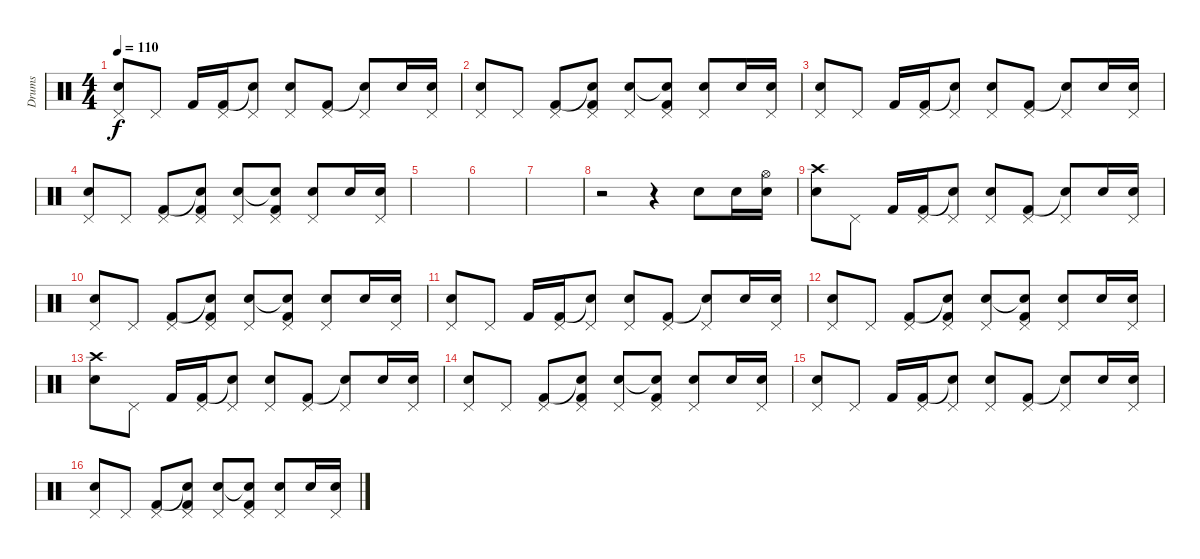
\track ("Drums" "Drums") {instrument percussion}
\staff {score}
\articulation defaults
\ts (4 4)
\tempo 110
\clef neutral
\ks c
("Pedal Hi-Hat (hit)" "Snare (hit) 2").8{dy f} "Pedal Hi-Hat (hit)".8 "Kick (hit) 2".16 ("Pedal Hi-Hat (hit)" "Kick (hit) 2").16 ("Pedal Hi-Hat (hit)" "Snare (hit)"{t}).8 ("Pedal Hi-Hat (hit)" "Snare (hit) 2").8 ("Pedal Hi-Hat (hit)" "Kick (hit) 2").8 ("Pedal Hi-Hat (hit)" "Snare (hit)"{t}).8 "Snare (hit) 2".16 ("Pedal Hi-Hat (hit)" "Snare (hit) 2").16 |
("Pedal Hi-Hat (hit)" "Snare (hit) 2").8 "Pedal Hi-Hat (hit)".8 ("Pedal Hi-Hat (hit)" "Kick (hit) 2").8 ("Pedal Hi-Hat (hit)" "Snare (hit)"{t} "Kick (hit) 2").8 ("Pedal Hi-Hat (hit)" "Snare (hit) 2").8 ("Pedal Hi-Hat (hit)" "Snare (hit)"{t} "Kick (hit) 2").8 ("Pedal Hi-Hat (hit)" "Snare (hit) 2").8 "Snare (hit) 2".16 ("Pedal Hi-Hat (hit)" "Snare (hit) 2").16 |
("Pedal Hi-Hat (hit)" "Snare (hit) 2").8 "Pedal Hi-Hat (hit)".8 "Kick (hit) 2".16 ("Pedal Hi-Hat (hit)" "Kick (hit) 2").16 ("Pedal Hi-Hat (hit)" "Snare (hit)"{t}).8 ("Pedal Hi-Hat (hit)" "Snare (hit) 2").8 ("Pedal Hi-Hat (hit)" "Kick (hit) 2").8 ("Pedal Hi-Hat (hit)" "Snare (hit)"{t}).8 "Snare (hit) 2".16 ("Pedal Hi-Hat (hit)" "Snare (hit) 2").16 |
("Pedal Hi-Hat (hit)" "Snare (hit) 2").8 "Pedal Hi-Hat (hit)".8 ("Pedal Hi-Hat (hit)" "Kick (hit) 2").8 ("Pedal Hi-Hat (hit)" "Snare (hit)"{t} "Kick (hit) 2").8 ("Pedal Hi-Hat (hit)" "Snare (hit) 2").8 ("Pedal Hi-Hat (hit)" "Snare (hit)"{t} "Kick (hit) 2").8 ("Pedal Hi-Hat (hit)" "Snare (hit) 2").8 "Snare (hit) 2".16 ("Pedal Hi-Hat (hit)" "Snare (hit) 2").16 |
|
|
|
r.2 r.4 "Snare (hit) 2".8 "Snare (hit) 2".16 ("Snare (hit) 2" "Hi-Hat (open)").16 |
("Snare (hit) 2" "Crash high (hit)").8 "Pedal Hi-Hat (hit)".8 "Kick (hit) 2".16 ("Pedal Hi-Hat (hit)" "Kick (hit) 2").16 ("Pedal Hi-Hat (hit)" "Snare (hit)"{t}).8 ("Pedal Hi-Hat (hit)" "Snare (hit) 2").8 ("Pedal Hi-Hat (hit)" "Kick (hit) 2").8 ("Pedal Hi-Hat (hit)" "Snare (hit)"{t}).8 "Snare (hit) 2".16 ("Pedal Hi-Hat (hit)" "Snare (hit) 2").16 |
("Pedal Hi-Hat (hit)" "Snare (hit) 2").8 "Pedal Hi-Hat (hit)".8 ("Pedal Hi-Hat (hit)" "Kick (hit) 2").8 ("Pedal Hi-Hat (hit)" "Snare (hit)"{t} "Kick (hit) 2").8 ("Pedal Hi-Hat (hit)" "Snare (hit) 2").8 ("Pedal Hi-Hat (hit)" "Snare (hit)"{t} "Kick (hit) 2").8 ("Pedal Hi-Hat (hit)" "Snare (hit) 2").8 "Snare (hit) 2".16 ("Pedal Hi-Hat (hit)" "Snare (hit) 2").16 |
("Pedal Hi-Hat (hit)" "Snare (hit) 2").8 "Pedal Hi-Hat (hit)".8 "Kick (hit) 2".16 ("Pedal Hi-Hat (hit)" "Kick (hit) 2").16 ("Pedal Hi-Hat (hit)" "Snare (hit)"{t}).8 ("Pedal Hi-Hat (hit)" "Snare (hit) 2").8 ("Pedal Hi-Hat (hit)" "Kick (hit) 2").8 ("Pedal Hi-Hat (hit)" "Snare (hit)"{t}).8 "Snare (hit) 2".16 ("Pedal Hi-Hat (hit)" "Snare (hit) 2").16 |
("Pedal Hi-Hat (hit)" "Snare (hit) 2").8 "Pedal Hi-Hat (hit)".8 ("Pedal Hi-Hat (hit)" "Kick (hit) 2").8 ("Pedal Hi-Hat (hit)" "Snare (hit)"{t} "Kick (hit) 2").8 ("Pedal Hi-Hat (hit)" "Snare (hit) 2").8 ("Pedal Hi-Hat (hit)" "Snare (hit)"{t} "Kick (hit) 2").8 ("Pedal Hi-Hat (hit)" "Snare (hit) 2").8 "Snare (hit) 2".16 ("Pedal Hi-Hat (hit)" "Snare (hit) 2").16 |
("Snare (hit) 2" "Crash high (hit)").8 "Pedal Hi-Hat (hit)".8 "Kick (hit) 2".16 ("Pedal Hi-Hat (hit)" "Kick (hit) 2").16 ("Pedal Hi-Hat (hit)" "Snare (hit)"{t}).8 ("Pedal Hi-Hat (hit)" "Snare (hit) 2").8 ("Pedal Hi-Hat (hit)" "Kick (hit) 2").8 ("Pedal Hi-Hat (hit)" "Snare (hit)"{t}).8 "Snare (hit) 2".16 ("Pedal Hi-Hat (hit)" "Snare (hit) 2").16 |
("Pedal Hi-Hat (hit)" "Snare (hit) 2").8 "Pedal Hi-Hat (hit)".8 ("Pedal Hi-Hat (hit)" "Kick (hit) 2").8 ("Pedal Hi-Hat (hit)" "Snare (hit)"{t} "Kick (hit) 2").8 ("Pedal Hi-Hat (hit)" "Snare (hit) 2").8 ("Pedal Hi-Hat (hit)" "Snare (hit)"{t} "Kick (hit) 2").8 ("Pedal Hi-Hat (hit)" "Snare (hit) 2").8 "Snare (hit) 2".16 ("Pedal Hi-Hat (hit)" "Snare (hit) 2").16 |
("Pedal Hi-Hat (hit)" "Snare (hit) 2").8 "Pedal Hi-Hat (hit)".8 "Kick (hit) 2".16 ("Pedal Hi-Hat (hit)" "Kick (hit) 2").16 ("Pedal Hi-Hat (hit)" "Snare (hit)"{t}).8 ("Pedal Hi-Hat (hit)" "Snare (hit) 2").8 ("Pedal Hi-Hat (hit)" "Kick (hit) 2").8 ("Pedal Hi-Hat (hit)" "Snare (hit)"{t}).8 "Snare (hit) 2".16 ("Pedal Hi-Hat (hit)" "Snare (hit) 2").16 |
("Pedal Hi-Hat (hit)" "Snare (hit) 2").8 "Pedal Hi-Hat (hit)".8 ("Pedal Hi-Hat (hit)" "Kick (hit) 2").8 ("Pedal Hi-Hat (hit)" "Snare (hit)"{t} "Kick (hit) 2").8 ("Pedal Hi-Hat (hit)" "Snare (hit) 2").8 ("Pedal Hi-Hat (hit)" "Snare (hit)"{t} "Kick (hit) 2").8 ("Pedal Hi-Hat (hit)" "Snare (hit) 2").8 "Snare (hit) 2".16 ("Pedal Hi-Hat (hit)" "Snare (hit) 2").16
